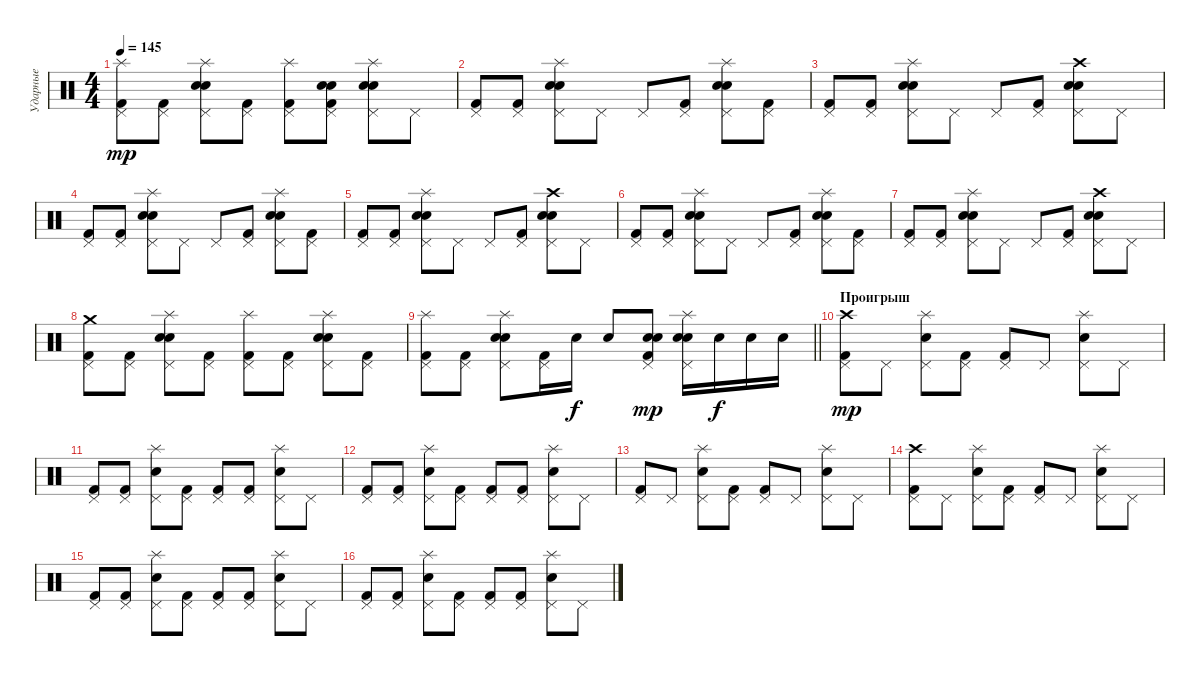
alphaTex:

\track ("Ударные" "Ударные") {instrument percussion}
\staff {score}
\articulation defaults
\ts (4 4)
\tempo 145
\clef neutral
\ks c
("Splash (hit)" "Pedal Hi-Hat (hit)" "Kick (hit) 2").8{dy mp} ("Pedal Hi-Hat (hit)" "Kick (hit) 2").8 ("Splash (hit)" "Pedal Hi-Hat (hit)" "Electric Snare (hit)" "Snare (hit) 2").8 ("Pedal Hi-Hat (hit)" "Kick (hit) 2").8 ("Splash (hit)" "Pedal Hi-Hat (hit)" "Kick (hit) 2").8 ("Pedal Hi-Hat (hit)" "Electric Snare (hit)" "Snare (hit) 2" "Kick (hit) 2").8 ("Splash (hit)" "Pedal Hi-Hat (hit)" "Electric Snare (hit)" "Snare (hit) 2").8 "Pedal Hi-Hat (hit)".8 |
("Pedal Hi-Hat (hit)" "Kick (hit) 2").8 ("Pedal Hi-Hat (hit)" "Kick (hit) 2").8 ("Splash (hit)" "Pedal Hi-Hat (hit)" "Electric Snare (hit)" "Snare (hit) 2").8 "Pedal Hi-Hat (hit)".8 "Pedal Hi-Hat (hit)".8 ("Pedal Hi-Hat (hit)" "Kick (hit) 2").8 ("Splash (hit)" "Pedal Hi-Hat (hit)" "Electric Snare (hit)" "Snare (hit) 2").8 ("Pedal Hi-Hat (hit)" "Kick (hit) 2").8 |
("Pedal Hi-Hat (hit)" "Kick (hit) 2").8 ("Pedal Hi-Hat (hit)" "Kick (hit) 2").8 ("Splash (hit)" "Pedal Hi-Hat (hit)" "Electric Snare (hit)" "Snare (hit) 2").8 "Pedal Hi-Hat (hit)".8 "Pedal Hi-Hat (hit)".8 ("Pedal Hi-Hat (hit)" "Kick (hit) 2").8 ("Crash high (hit)" "Pedal Hi-Hat (hit)" "Electric Snare (hit)" "Snare (hit) 2").8 "Pedal Hi-Hat (hit)".8 |
("Pedal Hi-Hat (hit)" "Kick (hit) 2").8 ("Pedal Hi-Hat (hit)" "Kick (hit) 2").8 ("Splash (hit)" "Pedal Hi-Hat (hit)" "Electric Snare (hit)" "Snare (hit) 2").8 "Pedal Hi-Hat (hit)".8 "Pedal Hi-Hat (hit)".8 ("Pedal Hi-Hat (hit)" "Kick (hit) 2").8 ("Splash (hit)" "Pedal Hi-Hat (hit)" "Electric Snare (hit)" "Snare (hit) 2").8 ("Pedal Hi-Hat (hit)" "Kick (hit) 2").8 |
("Pedal Hi-Hat (hit)" "Kick (hit) 2").8 ("Pedal Hi-Hat (hit)" "Kick (hit) 2").8 ("Splash (hit)" "Pedal Hi-Hat (hit)" "Electric Snare (hit)" "Snare (hit) 2").8 "Pedal Hi-Hat (hit)".8 "Pedal Hi-Hat (hit)".8 ("Pedal Hi-Hat (hit)" "Kick (hit) 2").8 ("Crash high (hit)" "Pedal Hi-Hat (hit)" "Electric Snare (hit)" "Snare (hit) 2").8 "Pedal Hi-Hat (hit)".8 |
("Pedal Hi-Hat (hit)" "Kick (hit) 2").8 ("Pedal Hi-Hat (hit)" "Kick (hit) 2").8 ("Splash (hit)" "Pedal Hi-Hat (hit)" "Electric Snare (hit)" "Snare (hit) 2").8 "Pedal Hi-Hat (hit)".8 "Pedal Hi-Hat (hit)".8 ("Pedal Hi-Hat (hit)" "Kick (hit) 2").8 ("Splash (hit)" "Pedal Hi-Hat (hit)" "Electric Snare (hit)" "Snare (hit) 2").8 ("Pedal Hi-Hat (hit)" "Kick (hit) 2").8 |
("Pedal Hi-Hat (hit)" "Kick (hit) 2").8 ("Pedal Hi-Hat (hit)" "Kick (hit) 2").8 ("Splash (hit)" "Pedal Hi-Hat (hit)" "Electric Snare (hit)" "Snare (hit) 2").8 "Pedal Hi-Hat (hit)".8 "Pedal Hi-Hat (hit)".8 ("Pedal Hi-Hat (hit)" "Kick (hit) 2").8 ("Crash high (hit)" "Pedal Hi-Hat (hit)" "Electric Snare (hit)" "Snare (hit) 2").8 "Pedal Hi-Hat (hit)".8 |
("Crash medium (hit)" "Pedal Hi-Hat (hit)" "Kick (hit) 2").8 ("Pedal Hi-Hat (hit)" "Kick (hit) 2").8 ("Splash (hit)" "Pedal Hi-Hat (hit)" "Electric Snare (hit)" "Snare (hit) 2").8 ("Pedal Hi-Hat (hit)" "Kick (hit) 2").8 ("Splash (hit)" "Pedal Hi-Hat (hit)" "Kick (hit) 2").8 ("Pedal Hi-Hat (hit)" "Kick (hit) 2").8 ("Splash (hit)" "Pedal Hi-Hat (hit)" "Electric Snare (hit)" "Snare (hit) 2").8 ("Pedal Hi-Hat (hit)" "Kick (hit) 2").8 |
\barLineRight lightlight
("Splash (hit)" "Pedal Hi-Hat (hit)" "Kick (hit) 2").8 ("Pedal Hi-Hat (hit)" "Kick (hit) 2").8 ("Splash (hit)" "Pedal Hi-Hat (hit)" "Electric Snare (hit)" "Snare (hit) 2").8 ("Pedal Hi-Hat (hit)" "Kick (hit) 2").16 "Electric Snare (hit)".16{dy f} "Electric Snare (hit)".8 ("Pedal Hi-Hat (hit)" "Electric Snare (hit)" "Snare (hit) 2" "Kick (hit) 2").8{dy mp} ("Splash (hit)" "Pedal Hi-Hat (hit)" "Electric Snare (hit)" "Snare (hit) 2").16 "Electric Snare (hit)".16{dy f} "Electric Snare (hit)".16 "Electric Snare (hit)".16 |
\section ("" "Проигрыш")
("Crash high (hit)" "Pedal Hi-Hat (hit)" "Kick (hit) 2").8{dy mp} "Pedal Hi-Hat (hit)".8 ("Splash (hit)" "Pedal Hi-Hat (hit)" "Electric Snare (hit)").8 ("Pedal Hi-Hat (hit)" "Kick (hit) 2").8 ("Pedal Hi-Hat (hit)" "Kick (hit) 2").8 "Pedal Hi-Hat (hit)".8 ("Splash (hit)" "Pedal Hi-Hat (hit)" "Electric Snare (hit)").8 "Pedal Hi-Hat (hit)".8 |
("Pedal Hi-Hat (hit)" "Kick (hit) 2").8 ("Pedal Hi-Hat (hit)" "Kick (hit) 2").8 ("Splash (hit)" "Pedal Hi-Hat (hit)" "Electric Snare (hit)").8 ("Pedal Hi-Hat (hit)" "Kick (hit) 2").8 ("Pedal Hi-Hat (hit)" "Kick (hit) 2").8 ("Pedal Hi-Hat (hit)" "Kick (hit) 2").8 ("Splash (hit)" "Pedal Hi-Hat (hit)" "Electric Snare (hit)").8 "Pedal Hi-Hat (hit)".8 |
("Pedal Hi-Hat (hit)" "Kick (hit) 2").8 ("Pedal Hi-Hat (hit)" "Kick (hit) 2").8 ("Splash (hit)" "Pedal Hi-Hat (hit)" "Electric Snare (hit)").8 ("Pedal Hi-Hat (hit)" "Kick (hit) 2").8 ("Pedal Hi-Hat (hit)" "Kick (hit) 2").8 ("Pedal Hi-Hat (hit)" "Kick (hit) 2").8 ("Splash (hit)" "Pedal Hi-Hat (hit)" "Electric Snare (hit)").8 "Pedal Hi-Hat (hit)".8 |
("Pedal Hi-Hat (hit)" "Kick (hit) 2").8 "Pedal Hi-Hat (hit)".8 ("Splash (hit)" "Pedal Hi-Hat (hit)" "Electric Snare (hit)").8 ("Pedal Hi-Hat (hit)" "Kick (hit) 2").8 ("Pedal Hi-Hat (hit)" "Kick (hit) 2").8 "Pedal Hi-Hat (hit)".8 ("Splash (hit)" "Pedal Hi-Hat (hit)" "Electric Snare (hit)").8 "Pedal Hi-Hat (hit)".8 |
("Crash high (hit)" "Pedal Hi-Hat (hit)" "Kick (hit) 2").8 "Pedal Hi-Hat (hit)".8 ("Splash (hit)" "Pedal Hi-Hat (hit)" "Electric Snare (hit)").8 ("Pedal Hi-Hat (hit)" "Kick (hit) 2").8 ("Pedal Hi-Hat (hit)" "Kick (hit) 2").8 "Pedal Hi-Hat (hit)".8 ("Splash (hit)" "Pedal Hi-Hat (hit)" "Electric Snare (hit)").8 "Pedal Hi-Hat (hit)".8 |
("Pedal Hi-Hat (hit)" "Kick (hit) 2").8 ("Pedal Hi-Hat (hit)" "Kick (hit) 2").8 ("Splash (hit)" "Pedal Hi-Hat (hit)" "Electric Snare (hit)").8 ("Pedal Hi-Hat (hit)" "Kick (hit) 2").8 ("Pedal Hi-Hat (hit)" "Kick (hit) 2").8 ("Pedal Hi-Hat (hit)" "Kick (hit) 2").8 ("Splash (hit)" "Pedal Hi-Hat (hit)" "Electric Snare (hit)").8 "Pedal Hi-Hat (hit)".8 |
("Pedal Hi-Hat (hit)" "Kick (hit) 2").8 ("Pedal Hi-Hat (hit)" "Kick (hit) 2").8 ("Splash (hit)" "Pedal Hi-Hat (hit)" "Electric Snare (hit)").8 ("Pedal Hi-Hat (hit)" "Kick (hit) 2").8 ("Pedal Hi-Hat (hit)" "Kick (hit) 2").8 ("Pedal Hi-Hat (hit)" "Kick (hit) 2").8 ("Splash (hit)" "Pedal Hi-Hat (hit)" "Electric Snare (hit)").8 "Pedal Hi-Hat (hit)".8
